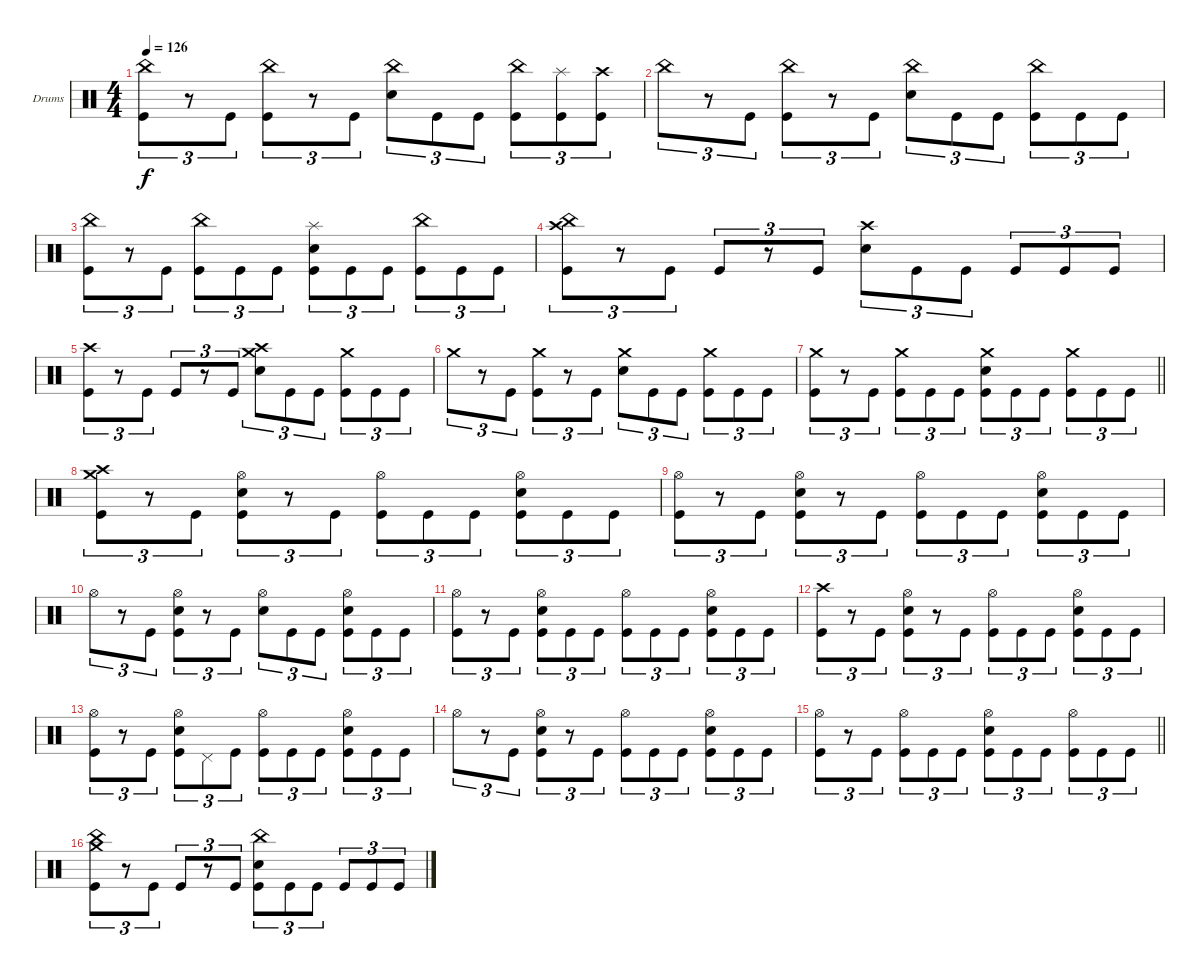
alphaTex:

\bracketExtendMode groupsimilarinstruments
\firstSystemTrackNameOrientation horizontal
\otherSystemsTrackNameOrientation horizontal
\track ("Drumkit" "Drums") {instrument percussion}
\staff {score}
\articulation defaults
\ts (4 4)
\tempo 126
\clef neutral
\ks c
("China (hit)" "Kick (hit)").8{tu (3 2) dy f} r.8{tu (3 2)} "Kick (hit)".8{tu (3 2)} ("China (hit)" "Kick (hit)").8{tu (3 2)} r.8{tu (3 2)} "Kick (hit)".8{tu (3 2)} ("China (hit)" "Snare (hit) 2").8{tu (3 2)} "Kick (hit)".8{tu (3 2)} "Kick (hit)".8{tu (3 2)} ("China (hit)" "Kick (hit)").8{tu (3 2)} ("Splash (hit)" "Kick (hit)").8{tu (3 2)} ("Crash high (hit)" "Kick (hit)").8{tu (3 2)} |
"China (hit)".8{tu (3 2)} r.8{tu (3 2)} "Kick (hit)".8{tu (3 2)} ("China (hit)" "Kick (hit)").8{tu (3 2)} r.8{tu (3 2)} "Kick (hit)".8{tu (3 2)} ("China (hit)" "Snare (hit) 2").8{tu (3 2)} "Kick (hit)".8{tu (3 2)} "Kick (hit)".8{tu (3 2)} ("China (hit)" "Kick (hit)").8{tu (3 2)} "Kick (hit)".8{tu (3 2)} "Kick (hit)".8{tu (3 2)} |
("China (hit)" "Kick (hit)").8{tu (3 2)} r.8{tu (3 2)} "Kick (hit)".8{tu (3 2)} ("China (hit)" "Kick (hit)").8{tu (3 2)} "Kick (hit)".8{tu (3 2)} "Kick (hit)".8{tu (3 2)} ("Splash (hit)" "Snare (hit) 2" "Kick (hit)").8{tu (3 2)} "Kick (hit)".8{tu (3 2)} "Kick (hit)".8{tu (3 2)} ("China (hit)" "Kick (hit)").8{tu (3 2)} "Kick (hit)".8{tu (3 2)} "Kick (hit)".8{tu (3 2)} |
("Crash high (hit)" "China (hit)" "Kick (hit)").8{tu (3 2)} r.8{tu (3 2)} "Kick (hit)".8{tu (3 2)} "Kick (hit)".8{tu (3 2)} r.8{tu (3 2)} "Kick (hit)".8{tu (3 2)} ("Crash high (hit)" "Snare (hit) 2").8{tu (3 2)} "Kick (hit)".8{tu (3 2)} "Kick (hit)".8{tu (3 2)} "Kick (hit)".8{tu (3 2)} "Kick (hit)".8{tu (3 2)} "Kick (hit)".8{tu (3 2)} |
("Crash high (hit)" "Kick (hit)").8{tu (3 2)} r.8{tu (3 2)} "Kick (hit)".8{tu (3 2)} "Kick (hit)".8{tu (3 2)} r.8{tu (3 2)} "Kick (hit)".8{tu (3 2)} ("Crash medium (hit)" "Crash high (hit)" "Snare (hit) 2").8{tu (3 2)} "Kick (hit)".8{tu (3 2)} "Kick (hit)".8{tu (3 2)} ("Crash medium (hit)" "Kick (hit)").8{tu (3 2)} "Kick (hit)".8{tu (3 2)} "Kick (hit)".8{tu (3 2)} |
"Crash medium (hit)".8{tu (3 2)} r.8{tu (3 2)} "Kick (hit)".8{tu (3 2)} ("Crash medium (hit)" "Kick (hit)").8{tu (3 2)} r.8{tu (3 2)} "Kick (hit)".8{tu (3 2)} ("Crash medium (hit)" "Snare (hit) 2").8{tu (3 2)} "Kick (hit)".8{tu (3 2)} "Kick (hit)".8{tu (3 2)} ("Crash medium (hit)" "Kick (hit)").8{tu (3 2)} "Kick (hit)".8{tu (3 2)} "Kick (hit)".8{tu (3 2)} |
\barLineRight lightlight
("Crash medium (hit)" "Kick (hit)").8{tu (3 2)} r.8{tu (3 2)} "Kick (hit)".8{tu (3 2)} ("Crash medium (hit)" "Kick (hit)").8{tu (3 2)} "Kick (hit)".8{tu (3 2)} "Kick (hit)".8{tu (3 2)} ("Crash medium (hit)" "Snare (hit) 2" "Kick (hit)").8{tu (3 2)} "Kick (hit)".8{tu (3 2)} "Kick (hit)".8{tu (3 2)} ("Crash medium (hit)" "Kick (hit)").8{tu (3 2)} "Kick (hit)".8{tu (3 2)} "Kick (hit)".8{tu (3 2)} |
("Crash high (hit)" "Crash medium (hit)" "Kick (hit)").8{tu (3 2)} r.8{tu (3 2)} "Kick (hit)".8{tu (3 2)} ("Hi-Hat (open)" "Snare (hit) 2" "Kick (hit)").8{tu (3 2)} r.8{tu (3 2)} "Kick (hit)".8{tu (3 2)} ("Hi-Hat (open)" "Kick (hit)").8{tu (3 2)} "Kick (hit)".8{tu (3 2)} "Kick (hit)".8{tu (3 2)} ("Hi-Hat (open)" "Snare (hit) 2" "Kick (hit)").8{tu (3 2)} "Kick (hit)".8{tu (3 2)} "Kick (hit)".8{tu (3 2)} |
("Hi-Hat (open)" "Kick (hit)").8{tu (3 2)} r.8{tu (3 2)} "Kick (hit)".8{tu (3 2)} ("Hi-Hat (open)" "Snare (hit) 2" "Kick (hit)").8{tu (3 2)} r.8{tu (3 2)} "Kick (hit)".8{tu (3 2)} ("Hi-Hat (open)" "Kick (hit)").8{tu (3 2)} "Kick (hit)".8{tu (3 2)} "Kick (hit)".8{tu (3 2)} ("Hi-Hat (open)" "Snare (hit) 2" "Kick (hit)").8{tu (3 2)} "Kick (hit)".8{tu (3 2)} "Kick (hit)".8{tu (3 2)} |
"Hi-Hat (open)".8{tu (3 2)} r.8{tu (3 2)} "Kick (hit)".8{tu (3 2)} ("Hi-Hat (open)" "Snare (hit) 2" "Kick (hit)").8{tu (3 2)} r.8{tu (3 2)} "Kick (hit)".8{tu (3 2)} ("Hi-Hat (open)" "Snare (hit) 2").8{tu (3 2)} "Kick (hit)".8{tu (3 2)} "Kick (hit)".8{tu (3 2)} ("Hi-Hat (open)" "Snare (hit) 2" "Kick (hit)").8{tu (3 2)} "Kick (hit)".8{tu (3 2)} "Kick (hit)".8{tu (3 2)} |
("Hi-Hat (open)" "Kick (hit)").8{tu (3 2)} r.8{tu (3 2)} "Kick (hit)".8{tu (3 2)} ("Hi-Hat (open)" "Snare (hit) 2" "Kick (hit)").8{tu (3 2)} "Kick (hit)".8{tu (3 2)} "Kick (hit)".8{tu (3 2)} ("Hi-Hat (open)" "Kick (hit)").8{tu (3 2)} "Kick (hit)".8{tu (3 2)} "Kick (hit)".8{tu (3 2)} ("Hi-Hat (open)" "Snare (hit) 2" "Kick (hit)").8{tu (3 2)} "Kick (hit)".8{tu (3 2)} "Kick (hit)".8{tu (3 2)} |
("Crash high (hit)" "Kick (hit)").8{tu (3 2)} r.8{tu (3 2)} "Kick (hit)".8{tu (3 2)} ("Hi-Hat (open)" "Snare (hit) 2" "Kick (hit)").8{tu (3 2)} r.8{tu (3 2)} "Kick (hit)".8{tu (3 2)} ("Hi-Hat (open)" "Kick (hit)").8{tu (3 2)} "Kick (hit)".8{tu (3 2)} "Kick (hit)".8{tu (3 2)} ("Hi-Hat (open)" "Snare (hit) 2" "Kick (hit)").8{tu (3 2)} "Kick (hit)".8{tu (3 2)} "Kick (hit)".8{tu (3 2)} |
("Hi-Hat (open)" "Kick (hit)").8{tu (3 2)} r.8{tu (3 2)} "Kick (hit)".8{tu (3 2)} ("Hi-Hat (open)" "Snare (hit) 2" "Kick (hit)").8{tu (3 2)} "Pedal Hi-Hat (hit)".8{tu (3 2)} "Kick (hit)".8{tu (3 2)} ("Hi-Hat (open)" "Kick (hit)").8{tu (3 2)} "Kick (hit)".8{tu (3 2)} "Kick (hit)".8{tu (3 2)} ("Hi-Hat (open)" "Snare (hit) 2" "Kick (hit)").8{tu (3 2)} "Kick (hit)".8{tu (3 2)} "Kick (hit)".8{tu (3 2)} |
"Hi-Hat (open)".8{tu (3 2)} r.8{tu (3 2)} "Kick (hit)".8{tu (3 2)} ("Hi-Hat (open)" "Snare (hit) 2" "Kick (hit)").8{tu (3 2)} r.8{tu (3 2)} "Kick (hit)".8{tu (3 2)} ("Hi-Hat (open)" "Kick (hit)").8{tu (3 2)} "Kick (hit)".8{tu (3 2)} "Kick (hit)".8{tu (3 2)} ("Hi-Hat (open)" "Snare (hit) 2" "Kick (hit)").8{tu (3 2)} "Kick (hit)".8{tu (3 2)} "Kick (hit)".8{tu (3 2)} |
\barLineRight lightlight
("Hi-Hat (open)" "Kick (hit)").8{tu (3 2)} r.8{tu (3 2)} "Kick (hit)".8{tu (3 2)} ("Hi-Hat (open)" "Kick (hit)").8{tu (3 2)} "Kick (hit)".8{tu (3 2)} "Kick (hit)".8{tu (3 2)} ("Hi-Hat (open)" "Snare (hit) 2" "Kick (hit)").8{tu (3 2)} "Kick (hit)".8{tu (3 2)} "Kick (hit)".8{tu (3 2)} ("Hi-Hat (open)" "Kick (hit)").8{tu (3 2)} "Kick (hit)".8{tu (3 2)} "Kick (hit)".8{tu (3 2)} |
("China (hit)" "Crash medium (hit)" "Kick (hit)").8{tu (3 2)} r.8{tu (3 2)} "Kick (hit)".8{tu (3 2)} "Kick (hit)".8{tu (3 2)} r.8{tu (3 2)} "Kick (hit)".8{tu (3 2)} ("China (hit)" "Snare (hit) 2" "Kick (hit)").8{tu (3 2)} "Kick (hit)".8{tu (3 2)} "Kick (hit)".8{tu (3 2)} "Kick (hit)".8{tu (3 2)} "Kick (hit)".8{tu (3 2)} "Kick (hit)".8{tu (3 2)}
